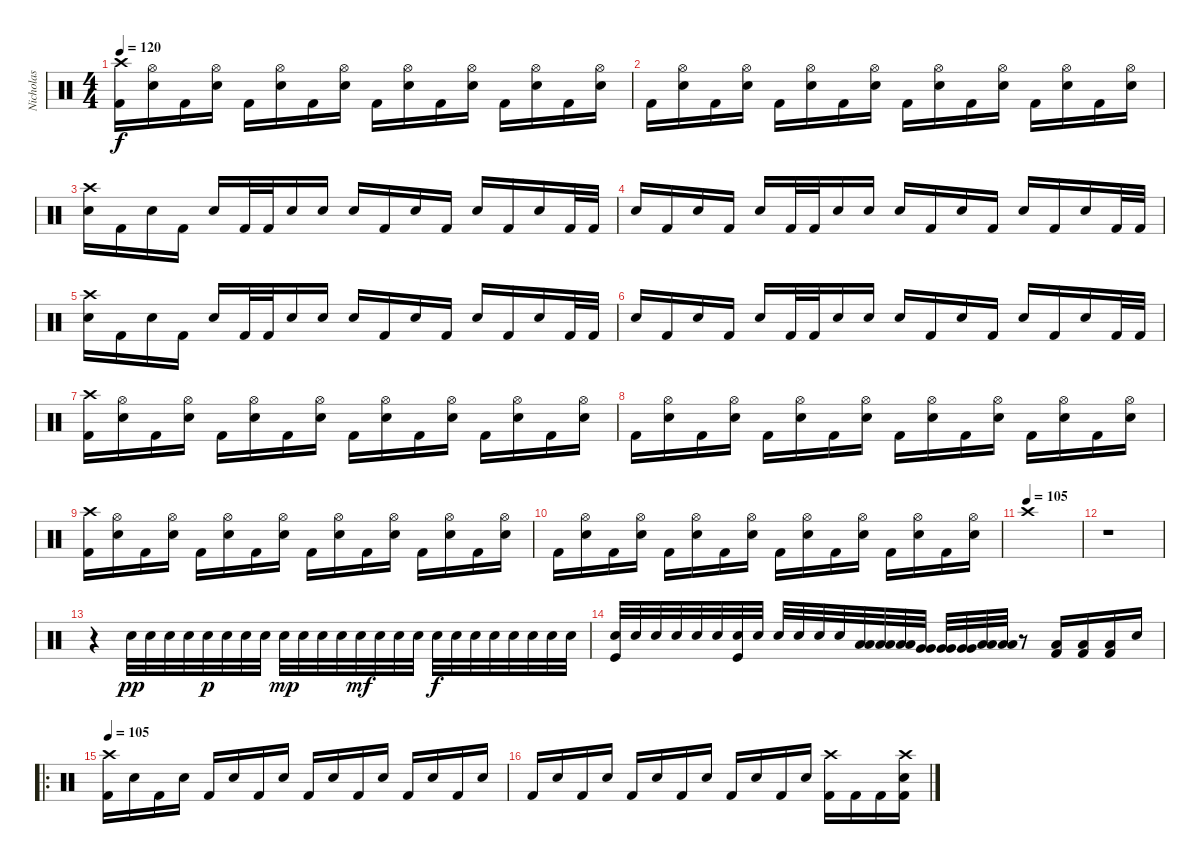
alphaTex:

\track ("Nicholas" "Nicholas") {instrument percussion}
\staff {score}
\articulation defaults
\ts (4 4)
\tempo 120
\clef neutral
\ks c
("Kick (hit) 2" "Crash high (hit)").16{dy f} ("Electric Snare (hit)" "Hi-Hat (open)").16 "Kick (hit) 2".16 ("Electric Snare (hit)" "Hi-Hat (open)").16 "Kick (hit) 2".16 ("Electric Snare (hit)" "Hi-Hat (open)").16 "Kick (hit) 2".16 ("Electric Snare (hit)" "Hi-Hat (open)").16 "Kick (hit) 2".16 ("Electric Snare (hit)" "Hi-Hat (open)").16 "Kick (hit) 2".16 ("Electric Snare (hit)" "Hi-Hat (open)").16 "Kick (hit) 2".16 ("Electric Snare (hit)" "Hi-Hat (open)").16 "Kick (hit) 2".16 ("Electric Snare (hit)" "Hi-Hat (open)").16 |
"Kick (hit) 2".16 ("Electric Snare (hit)" "Hi-Hat (open)").16 "Kick (hit) 2".16 ("Electric Snare (hit)" "Hi-Hat (open)").16 "Kick (hit) 2".16 ("Electric Snare (hit)" "Hi-Hat (open)").16 "Kick (hit) 2".16 ("Electric Snare (hit)" "Hi-Hat (open)").16 "Kick (hit) 2".16 ("Electric Snare (hit)" "Hi-Hat (open)").16 "Kick (hit) 2".16 ("Electric Snare (hit)" "Hi-Hat (open)").16 "Kick (hit) 2".16 ("Electric Snare (hit)" "Hi-Hat (open)").16 "Kick (hit) 2".16 ("Electric Snare (hit)" "Hi-Hat (open)").16 |
("Electric Snare (hit)" "Crash high (hit)").16 "Kick (hit) 2".16 "Electric Snare (hit)".16 "Kick (hit) 2".16 "Electric Snare (hit)".16 "Kick (hit) 2".32 "Kick (hit) 2".32 "Electric Snare (hit)".16 "Electric Snare (hit)".16 "Electric Snare (hit)".16 "Kick (hit) 2".16 "Electric Snare (hit)".16 "Kick (hit) 2".16 "Electric Snare (hit)".16 "Kick (hit) 2".16 "Electric Snare (hit)".16 "Kick (hit) 2".32 "Kick (hit) 2".32 |
"Electric Snare (hit)".16 "Kick (hit) 2".16 "Electric Snare (hit)".16 "Kick (hit) 2".16 "Electric Snare (hit)".16 "Kick (hit) 2".32 "Kick (hit) 2".32 "Electric Snare (hit)".16 "Electric Snare (hit)".16 "Electric Snare (hit)".16 "Kick (hit) 2".16 "Electric Snare (hit)".16 "Kick (hit) 2".16 "Electric Snare (hit)".16 "Kick (hit) 2".16 "Electric Snare (hit)".16 "Kick (hit) 2".32 "Kick (hit) 2".32 |
("Electric Snare (hit)" "Crash high (hit)").16 "Kick (hit) 2".16 "Electric Snare (hit)".16 "Kick (hit) 2".16 "Electric Snare (hit)".16 "Kick (hit) 2".32 "Kick (hit) 2".32 "Electric Snare (hit)".16 "Electric Snare (hit)".16 "Electric Snare (hit)".16 "Kick (hit) 2".16 "Electric Snare (hit)".16 "Kick (hit) 2".16 "Electric Snare (hit)".16 "Kick (hit) 2".16 "Electric Snare (hit)".16 "Kick (hit) 2".32 "Kick (hit) 2".32 |
"Electric Snare (hit)".16 "Kick (hit) 2".16 "Electric Snare (hit)".16 "Kick (hit) 2".16 "Electric Snare (hit)".16 "Kick (hit) 2".32 "Kick (hit) 2".32 "Electric Snare (hit)".16 "Electric Snare (hit)".16 "Electric Snare (hit)".16 "Kick (hit) 2".16 "Electric Snare (hit)".16 "Kick (hit) 2".16 "Electric Snare (hit)".16 "Kick (hit) 2".16 "Electric Snare (hit)".16 "Kick (hit) 2".32 "Kick (hit) 2".32 |
("Kick (hit) 2" "Crash high (hit)").16 ("Electric Snare (hit)" "Hi-Hat (open)").16 "Kick (hit) 2".16 ("Electric Snare (hit)" "Hi-Hat (open)").16 "Kick (hit) 2".16 ("Electric Snare (hit)" "Hi-Hat (open)").16 "Kick (hit) 2".16 ("Electric Snare (hit)" "Hi-Hat (open)").16 "Kick (hit) 2".16 ("Electric Snare (hit)" "Hi-Hat (open)").16 "Kick (hit) 2".16 ("Electric Snare (hit)" "Hi-Hat (open)").16 "Kick (hit) 2".16 ("Electric Snare (hit)" "Hi-Hat (open)").16 "Kick (hit) 2".16 ("Electric Snare (hit)" "Hi-Hat (open)").16 |
"Kick (hit) 2".16 ("Electric Snare (hit)" "Hi-Hat (open)").16 "Kick (hit) 2".16 ("Electric Snare (hit)" "Hi-Hat (open)").16 "Kick (hit) 2".16 ("Electric Snare (hit)" "Hi-Hat (open)").16 "Kick (hit) 2".16 ("Electric Snare (hit)" "Hi-Hat (open)").16 "Kick (hit) 2".16 ("Electric Snare (hit)" "Hi-Hat (open)").16 "Kick (hit) 2".16 ("Electric Snare (hit)" "Hi-Hat (open)").16 "Kick (hit) 2".16 ("Electric Snare (hit)" "Hi-Hat (open)").16 "Kick (hit) 2".16 ("Electric Snare (hit)" "Hi-Hat (open)").16 |
("Kick (hit) 2" "Crash high (hit)").16 ("Electric Snare (hit)" "Hi-Hat (open)").16 "Kick (hit) 2".16 ("Electric Snare (hit)" "Hi-Hat (open)").16 "Kick (hit) 2".16 ("Electric Snare (hit)" "Hi-Hat (open)").16 "Kick (hit) 2".16 ("Electric Snare (hit)" "Hi-Hat (open)").16 "Kick (hit) 2".16 ("Electric Snare (hit)" "Hi-Hat (open)").16 "Kick (hit) 2".16 ("Electric Snare (hit)" "Hi-Hat (open)").16 "Kick (hit) 2".16 ("Electric Snare (hit)" "Hi-Hat (open)").16 "Kick (hit) 2".16 ("Electric Snare (hit)" "Hi-Hat (open)").16 |
"Kick (hit) 2".16 ("Electric Snare (hit)" "Hi-Hat (open)").16 "Kick (hit) 2".16 ("Electric Snare (hit)" "Hi-Hat (open)").16 "Kick (hit) 2".16 ("Electric Snare (hit)" "Hi-Hat (open)").16 "Kick (hit) 2".16 ("Electric Snare (hit)" "Hi-Hat (open)").16 "Kick (hit) 2".16 ("Electric Snare (hit)" "Hi-Hat (open)").16 "Kick (hit) 2".16 ("Electric Snare (hit)" "Hi-Hat (open)").16 "Kick (hit) 2".16 ("Electric Snare (hit)" "Hi-Hat (open)").16 "Kick (hit) 2".16 ("Electric Snare (hit)" "Hi-Hat (open)").16 |
\tempo (105)
"Crash high (hit)".1 |
r.1 |
r.4 "Electric Snare (hit)".32{dy pp} "Electric Snare (hit)".32 "Electric Snare (hit)".32 "Electric Snare (hit)".32 "Electric Snare (hit)".32{dy p} "Electric Snare (hit)".32 "Electric Snare (hit)".32 "Electric Snare (hit)".32 "Electric Snare (hit)".32{dy mp} "Electric Snare (hit)".32 "Electric Snare (hit)".32 "Electric Snare (hit)".32 "Electric Snare (hit)".32{dy mf} "Electric Snare (hit)".32 "Electric Snare (hit)".32 "Electric Snare (hit)".32 "Electric Snare (hit)".32{dy f} "Electric Snare (hit)".32 "Electric Snare (hit)".32 "Electric Snare (hit)".32 "Electric Snare (hit)".32 "Electric Snare (hit)".32 "Electric Snare (hit)".32 "Electric Snare (hit)".32 |
("Electric Snare (hit)" "Kick (hit)").32 "Electric Snare (hit)".32 "Electric Snare (hit)".32 "Electric Snare (hit)".32 "Electric Snare (hit)".32 "Electric Snare (hit)".32 ("Electric Snare (hit)" "Kick (hit)").32 "Electric Snare (hit)".32 "Electric Snare (hit)".32 "Electric Snare (hit)".32 "Electric Snare (hit)".32 "Electric Snare (hit)".32 ("Low Tom (hit)" "Low Tom (hit)").32 ("Low Tom (hit)" "Low Tom (hit)").32 ("Low Tom (hit)" "Low Tom (hit)").32 ("Very Low Tom (hit)" "Very Low Tom (hit)").32 ("Very Low Tom (hit)" "Very Low Tom (hit)").32 ("Very Low Tom (hit)" "Very Low Tom (hit)").32 ("Low Floor Tom (hit)" "Low Floor Tom (hit)").32 ("Low Floor Tom (hit)" "Low Floor Tom (hit)").32 r.8 ("Kick (hit) 2" "Low Floor Tom (hit)").16 ("Kick (hit) 2" "Low Floor Tom (hit)").16 ("Kick (hit) 2" "Low Floor Tom (hit)").16 "Electric Snare (hit)".16 |
\ro
\tempo 105
("Kick (hit) 2" "Crash high (hit)").16 "Electric Snare (hit)".16 "Kick (hit) 2".16 "Electric Snare (hit)".16 "Kick (hit) 2".16 "Electric Snare (hit)".16 "Kick (hit) 2".16 "Electric Snare (hit)".16 "Kick (hit) 2".16 "Electric Snare (hit)".16 "Kick (hit) 2".16 "Electric Snare (hit)".16 "Kick (hit) 2".16 "Electric Snare (hit)".16 "Kick (hit) 2".16 "Electric Snare (hit)".16 |
"Kick (hit) 2".16 "Electric Snare (hit)".16 "Kick (hit) 2".16 "Electric Snare (hit)".16 "Kick (hit) 2".16 "Electric Snare (hit)".16 "Kick (hit) 2".16 "Electric Snare (hit)".16 "Kick (hit) 2".16 "Electric Snare (hit)".16 "Kick (hit) 2".16 "Electric Snare (hit)".16 ("Kick (hit) 2" "Crash high (hit)").16 "Kick (hit) 2".16 "Kick (hit) 2".16 ("Kick (hit) 2" "Crash high (hit)" "Electric Snare (hit)").16
